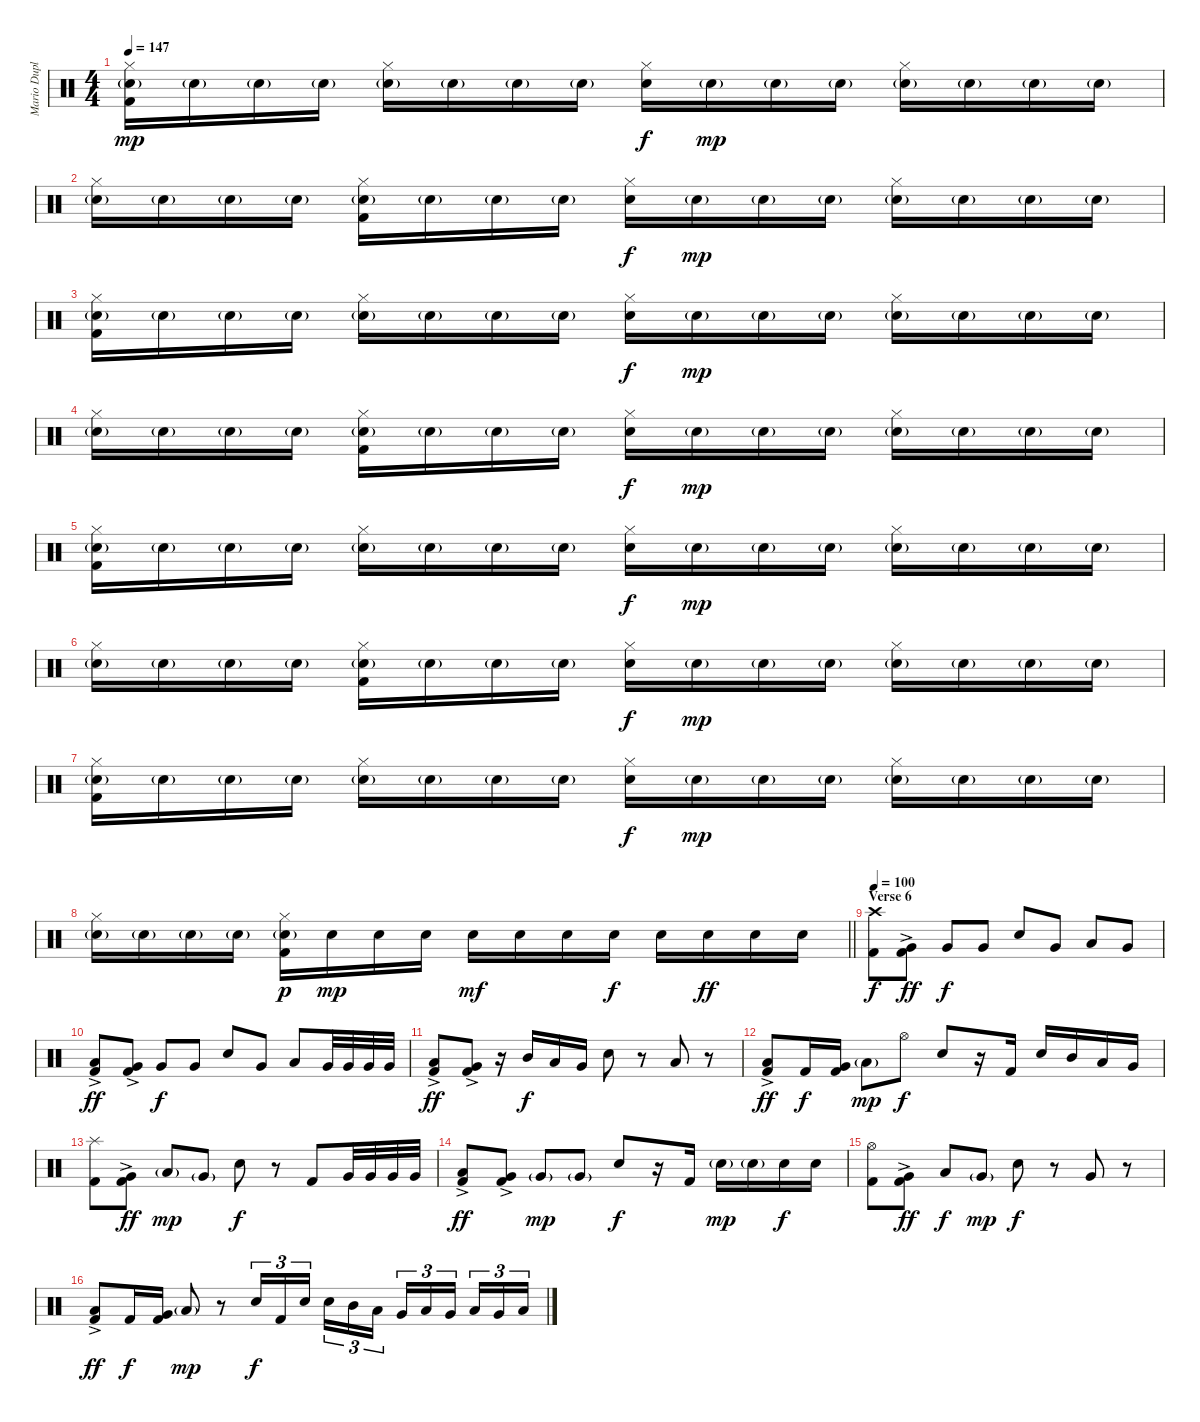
\track ("Mario Duplantier - DRUMS" "Mario Dupl") {instrument percussion}
\staff {score}
\articulation defaults
\ts (4 4)
\tempo 147
\clef neutral
\ks c
("Hi-Hat (closed)" "Electric Snare (hit)"{g} "Kick (hit) 2").16{dy mp} "Electric Snare (hit)"{g}.16 "Electric Snare (hit)"{g}.16 "Electric Snare (hit)"{g}.16 ("Hi-Hat (closed)" "Electric Snare (hit)"{g}).16 "Electric Snare (hit)"{g}.16 "Electric Snare (hit)"{g}.16 "Electric Snare (hit)"{g}.16 ("Hi-Hat (closed)" "Electric Snare (hit)").16{dy f} "Electric Snare (hit)"{g}.16{dy mp} "Electric Snare (hit)"{g}.16 "Electric Snare (hit)"{g}.16 ("Hi-Hat (closed)" "Electric Snare (hit)"{g}).16 "Electric Snare (hit)"{g}.16 "Electric Snare (hit)"{g}.16 "Electric Snare (hit)"{g}.16 |
("Hi-Hat (closed)" "Electric Snare (hit)"{g}).16 "Electric Snare (hit)"{g}.16 "Electric Snare (hit)"{g}.16 "Electric Snare (hit)"{g}.16 ("Hi-Hat (closed)" "Electric Snare (hit)"{g} "Kick (hit) 2").16 "Electric Snare (hit)"{g}.16 "Electric Snare (hit)"{g}.16 "Electric Snare (hit)"{g}.16 ("Hi-Hat (closed)" "Electric Snare (hit)").16{dy f} "Electric Snare (hit)"{g}.16{dy mp} "Electric Snare (hit)"{g}.16 "Electric Snare (hit)"{g}.16 ("Hi-Hat (closed)" "Electric Snare (hit)"{g}).16 "Electric Snare (hit)"{g}.16 "Electric Snare (hit)"{g}.16 "Electric Snare (hit)"{g}.16 |
("Hi-Hat (closed)" "Electric Snare (hit)"{g} "Kick (hit) 2").16 "Electric Snare (hit)"{g}.16 "Electric Snare (hit)"{g}.16 "Electric Snare (hit)"{g}.16 ("Hi-Hat (closed)" "Electric Snare (hit)"{g}).16 "Electric Snare (hit)"{g}.16 "Electric Snare (hit)"{g}.16 "Electric Snare (hit)"{g}.16 ("Hi-Hat (closed)" "Electric Snare (hit)").16{dy f} "Electric Snare (hit)"{g}.16{dy mp} "Electric Snare (hit)"{g}.16 "Electric Snare (hit)"{g}.16 ("Hi-Hat (closed)" "Electric Snare (hit)"{g}).16 "Electric Snare (hit)"{g}.16 "Electric Snare (hit)"{g}.16 "Electric Snare (hit)"{g}.16 |
("Hi-Hat (closed)" "Electric Snare (hit)"{g}).16 "Electric Snare (hit)"{g}.16 "Electric Snare (hit)"{g}.16 "Electric Snare (hit)"{g}.16 ("Hi-Hat (closed)" "Electric Snare (hit)"{g} "Kick (hit) 2").16 "Electric Snare (hit)"{g}.16 "Electric Snare (hit)"{g}.16 "Electric Snare (hit)"{g}.16 ("Hi-Hat (closed)" "Electric Snare (hit)").16{dy f} "Electric Snare (hit)"{g}.16{dy mp} "Electric Snare (hit)"{g}.16 "Electric Snare (hit)"{g}.16 ("Hi-Hat (closed)" "Electric Snare (hit)"{g}).16 "Electric Snare (hit)"{g}.16 "Electric Snare (hit)"{g}.16 "Electric Snare (hit)"{g}.16 |
("Hi-Hat (closed)" "Electric Snare (hit)"{g} "Kick (hit) 2").16 "Electric Snare (hit)"{g}.16 "Electric Snare (hit)"{g}.16 "Electric Snare (hit)"{g}.16 ("Hi-Hat (closed)" "Electric Snare (hit)"{g}).16 "Electric Snare (hit)"{g}.16 "Electric Snare (hit)"{g}.16 "Electric Snare (hit)"{g}.16 ("Hi-Hat (closed)" "Electric Snare (hit)").16{dy f} "Electric Snare (hit)"{g}.16{dy mp} "Electric Snare (hit)"{g}.16 "Electric Snare (hit)"{g}.16 ("Hi-Hat (closed)" "Electric Snare (hit)"{g}).16 "Electric Snare (hit)"{g}.16 "Electric Snare (hit)"{g}.16 "Electric Snare (hit)"{g}.16 |
("Hi-Hat (closed)" "Electric Snare (hit)"{g}).16 "Electric Snare (hit)"{g}.16 "Electric Snare (hit)"{g}.16 "Electric Snare (hit)"{g}.16 ("Hi-Hat (closed)" "Electric Snare (hit)"{g} "Kick (hit) 2").16 "Electric Snare (hit)"{g}.16 "Electric Snare (hit)"{g}.16 "Electric Snare (hit)"{g}.16 ("Hi-Hat (closed)" "Electric Snare (hit)").16{dy f} "Electric Snare (hit)"{g}.16{dy mp} "Electric Snare (hit)"{g}.16 "Electric Snare (hit)"{g}.16 ("Hi-Hat (closed)" "Electric Snare (hit)"{g}).16 "Electric Snare (hit)"{g}.16 "Electric Snare (hit)"{g}.16 "Electric Snare (hit)"{g}.16 |
("Hi-Hat (closed)" "Electric Snare (hit)"{g} "Kick (hit) 2").16 "Electric Snare (hit)"{g}.16 "Electric Snare (hit)"{g}.16 "Electric Snare (hit)"{g}.16 ("Hi-Hat (closed)" "Electric Snare (hit)"{g}).16 "Electric Snare (hit)"{g}.16 "Electric Snare (hit)"{g}.16 "Electric Snare (hit)"{g}.16 ("Hi-Hat (closed)" "Electric Snare (hit)").16{dy f} "Electric Snare (hit)"{g}.16{dy mp} "Electric Snare (hit)"{g}.16 "Electric Snare (hit)"{g}.16 ("Hi-Hat (closed)" "Electric Snare (hit)"{g}).16 "Electric Snare (hit)"{g}.16 "Electric Snare (hit)"{g}.16 "Electric Snare (hit)"{g}.16 |
\barLineRight lightlight
("Hi-Hat (closed)" "Electric Snare (hit)"{g}).16 "Electric Snare (hit)"{g}.16 "Electric Snare (hit)"{g}.16 "Electric Snare (hit)"{g}.16 ("Hi-Hat (closed)" "Electric Snare (hit)"{g} "Kick (hit) 2").16{dy p} "Electric Snare (hit)".16{dy mp} "Electric Snare (hit)".16 "Electric Snare (hit)".16 "Electric Snare (hit)".16{dy mf} "Electric Snare (hit)".16 "Electric Snare (hit)".16 "Electric Snare (hit)".16{dy f} "Electric Snare (hit)".16 "Electric Snare (hit)".16{dy ff} "Electric Snare (hit)".16 "Electric Snare (hit)".16 |
\section ("" "Verse 6")
\tempo 100
("Crash high (hit)" "Kick (hit) 2").8{dy f} ("Very Low Tom (hit)"{ac} "Kick (hit) 2").8{dy ff} "Very Low Tom (hit)".8{dy f} "Very Low Tom (hit)".8 "Electric Snare (hit)".8 "Very Low Tom (hit)".8 "Low Tom (hit)".8 "Very Low Tom (hit)".8 |
("Low Tom (hit)"{ac} "Kick (hit) 2").8{dy ff} ("Very Low Tom (hit)"{ac} "Kick (hit) 2").8 "Very Low Tom (hit)".8{dy f} "Very Low Tom (hit)".8 "Electric Snare (hit)".8 "Very Low Tom (hit)".8 "Low Tom (hit)".8 "Very Low Tom (hit)".32 "Very Low Tom (hit)".32 "Very Low Tom (hit)".32 "Very Low Tom (hit)".32 |
("Low Tom (hit)"{ac} "Kick (hit) 2").8{dy ff} ("Very Low Tom (hit)"{ac} "Kick (hit) 2").8 r.16 "Mid Tom (hit)".16{dy f} "Low Tom (hit)".16 "Very Low Tom (hit)".16 "Electric Snare (hit)".8 r.8 "Low Tom (hit)".8 r.8 |
("Low Tom (hit)"{ac} "Kick (hit) 2").8{dy ff} "Kick (hit) 2".16{dy f} ("Very Low Tom (hit)" "Kick (hit) 2").16 "Low Floor Tom (hit)"{g}.8{dy mp} "Hi-Hat (open)".8{dy f} "Electric Snare (hit)".8 r.16 "Kick (hit) 2".16 "Electric Snare (hit)".16 "Mid Tom (hit)".16 "Low Tom (hit)".16 "Very Low Tom (hit)".16 |
("Splash (hit)" "Kick (hit) 2").8 ("Very Low Tom (hit)"{ac} "Kick (hit) 2").8{dy ff} "Low Tom (hit)"{g}.8{dy mp} "Very Low Tom (hit)"{g}.8 "Electric Snare (hit)".8{dy f} r.8 "Kick (hit) 2".8 "Very Low Tom (hit)".32 "Very Low Tom (hit)".32 "Very Low Tom (hit)".32 "Very Low Tom (hit)".32 |
("Low Tom (hit)"{ac} "Kick (hit) 2").8{dy ff} ("Very Low Tom (hit)"{ac} "Kick (hit) 2").8 "Very Low Tom (hit)"{g}.8{dy mp} "Very Low Tom (hit)"{g}.8 "Electric Snare (hit)".8{dy f} r.16 "Kick (hit) 2".16 "Electric Snare (hit)"{g}.16{dy mp} "Electric Snare (hit)"{g}.16 "Electric Snare (hit)".16{dy f} "Electric Snare (hit)".16 |
("Hi-Hat (open)" "Kick (hit) 2").8 ("Very Low Tom (hit)"{ac} "Kick (hit) 2").8{dy ff} "Low Tom (hit)".8{dy f} "Very Low Tom (hit)"{g}.8{dy mp} "Electric Snare (hit)".8{dy f} r.8 "Very Low Tom (hit)".8 r.8 |
("Low Tom (hit)"{ac} "Kick (hit) 2").8{dy ff} "Kick (hit) 2".16{dy f} ("Very Low Tom (hit)" "Kick (hit) 2").16 "Low Floor Tom (hit)"{g}.8{dy mp} r.8 "Electric Snare (hit)".16{tu (3 2) dy f} "Kick (hit) 2".16{tu (3 2)} "Electric Snare (hit)".16{tu (3 2) beam splitsecondary} "Electric Snare (hit)".16{tu (3 2)} "Mid Tom (hit)".16{tu (3 2)} "Low Tom (hit)".16{tu (3 2)} "Very Low Tom (hit)".16{tu (3 2)} "Low Tom (hit)".16{tu (3 2)} "Very Low Tom (hit)".16{tu (3 2) beam splitsecondary} "Low Floor Tom (hit)".16{tu (3 2)} "Very Low Tom (hit)".16{tu (3 2)} "Low Floor Tom (hit)".16{tu (3 2)}
